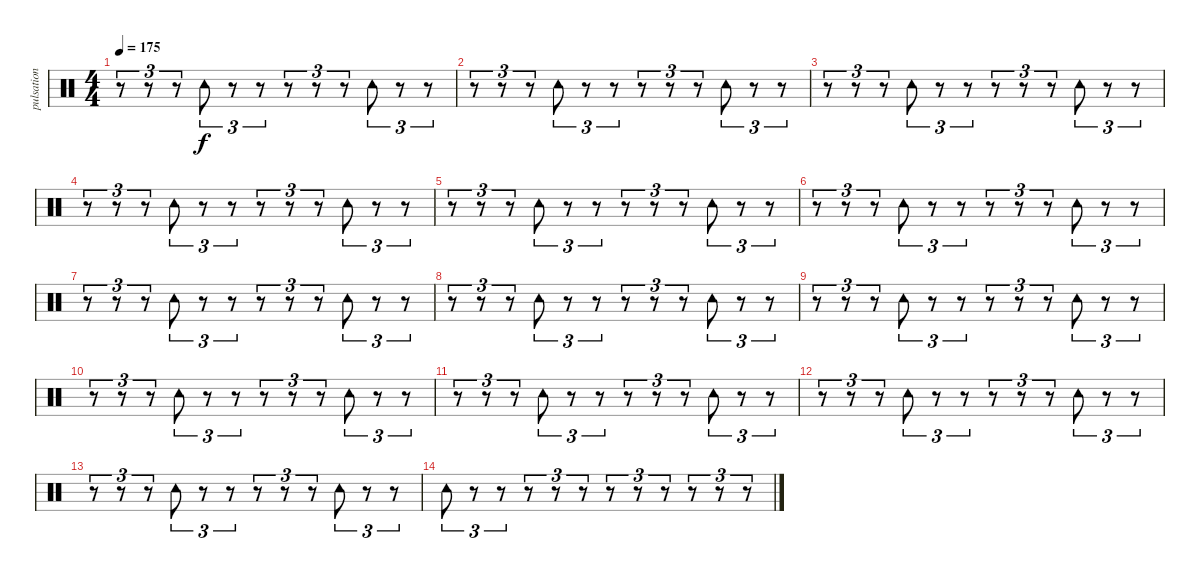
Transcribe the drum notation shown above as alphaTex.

\track ("pulsation" "pulsation") {instrument percussion}
\staff {score}
\articulation defaults
\ts (4 4)
\tempo 175
\clef neutral
\ks c
r.8{tu (3 2) dy f} r.8{tu (3 2)} r.8{tu (3 2)} "Tambourine (hit)".8{tu (3 2)} r.8{tu (3 2)} r.8{tu (3 2)} r.8{tu (3 2)} r.8{tu (3 2)} r.8{tu (3 2)} "Tambourine (hit)".8{tu (3 2)} r.8{tu (3 2)} r.8{tu (3 2)} |
r.8{tu (3 2)} r.8{tu (3 2)} r.8{tu (3 2)} "Tambourine (hit)".8{tu (3 2)} r.8{tu (3 2)} r.8{tu (3 2)} r.8{tu (3 2)} r.8{tu (3 2)} r.8{tu (3 2)} "Tambourine (hit)".8{tu (3 2)} r.8{tu (3 2)} r.8{tu (3 2)} |
r.8{tu (3 2)} r.8{tu (3 2)} r.8{tu (3 2)} "Tambourine (hit)".8{tu (3 2)} r.8{tu (3 2)} r.8{tu (3 2)} r.8{tu (3 2)} r.8{tu (3 2)} r.8{tu (3 2)} "Tambourine (hit)".8{tu (3 2)} r.8{tu (3 2)} r.8{tu (3 2)} |
r.8{tu (3 2)} r.8{tu (3 2)} r.8{tu (3 2)} "Tambourine (hit)".8{tu (3 2)} r.8{tu (3 2)} r.8{tu (3 2)} r.8{tu (3 2)} r.8{tu (3 2)} r.8{tu (3 2)} "Tambourine (hit)".8{tu (3 2)} r.8{tu (3 2)} r.8{tu (3 2)} |
r.8{tu (3 2)} r.8{tu (3 2)} r.8{tu (3 2)} "Tambourine (hit)".8{tu (3 2)} r.8{tu (3 2)} r.8{tu (3 2)} r.8{tu (3 2)} r.8{tu (3 2)} r.8{tu (3 2)} "Tambourine (hit)".8{tu (3 2)} r.8{tu (3 2)} r.8{tu (3 2)} |
r.8{tu (3 2)} r.8{tu (3 2)} r.8{tu (3 2)} "Tambourine (hit)".8{tu (3 2)} r.8{tu (3 2)} r.8{tu (3 2)} r.8{tu (3 2)} r.8{tu (3 2)} r.8{tu (3 2)} "Tambourine (hit)".8{tu (3 2)} r.8{tu (3 2)} r.8{tu (3 2)} |
r.8{tu (3 2)} r.8{tu (3 2)} r.8{tu (3 2)} "Tambourine (hit)".8{tu (3 2)} r.8{tu (3 2)} r.8{tu (3 2)} r.8{tu (3 2)} r.8{tu (3 2)} r.8{tu (3 2)} "Tambourine (hit)".8{tu (3 2)} r.8{tu (3 2)} r.8{tu (3 2)} |
r.8{tu (3 2)} r.8{tu (3 2)} r.8{tu (3 2)} "Tambourine (hit)".8{tu (3 2)} r.8{tu (3 2)} r.8{tu (3 2)} r.8{tu (3 2)} r.8{tu (3 2)} r.8{tu (3 2)} "Tambourine (hit)".8{tu (3 2)} r.8{tu (3 2)} r.8{tu (3 2)} |
r.8{tu (3 2)} r.8{tu (3 2)} r.8{tu (3 2)} "Tambourine (hit)".8{tu (3 2)} r.8{tu (3 2)} r.8{tu (3 2)} r.8{tu (3 2)} r.8{tu (3 2)} r.8{tu (3 2)} "Tambourine (hit)".8{tu (3 2)} r.8{tu (3 2)} r.8{tu (3 2)} |
r.8{tu (3 2)} r.8{tu (3 2)} r.8{tu (3 2)} "Tambourine (hit)".8{tu (3 2)} r.8{tu (3 2)} r.8{tu (3 2)} r.8{tu (3 2)} r.8{tu (3 2)} r.8{tu (3 2)} "Tambourine (hit)".8{tu (3 2)} r.8{tu (3 2)} r.8{tu (3 2)} |
r.8{tu (3 2)} r.8{tu (3 2)} r.8{tu (3 2)} "Tambourine (hit)".8{tu (3 2)} r.8{tu (3 2)} r.8{tu (3 2)} r.8{tu (3 2)} r.8{tu (3 2)} r.8{tu (3 2)} "Tambourine (hit)".8{tu (3 2)} r.8{tu (3 2)} r.8{tu (3 2)} |
r.8{tu (3 2)} r.8{tu (3 2)} r.8{tu (3 2)} "Tambourine (hit)".8{tu (3 2)} r.8{tu (3 2)} r.8{tu (3 2)} r.8{tu (3 2)} r.8{tu (3 2)} r.8{tu (3 2)} "Tambourine (hit)".8{tu (3 2)} r.8{tu (3 2)} r.8{tu (3 2)} |
r.8{tu (3 2)} r.8{tu (3 2)} r.8{tu (3 2)} "Tambourine (hit)".8{tu (3 2)} r.8{tu (3 2)} r.8{tu (3 2)} r.8{tu (3 2)} r.8{tu (3 2)} r.8{tu (3 2)} "Tambourine (hit)".8{tu (3 2)} r.8{tu (3 2)} r.8{tu (3 2)} |
"Tambourine (hit)".8{tu (3 2)} r.8{tu (3 2)} r.8{tu (3 2)} r.8{tu (3 2)} r.8{tu (3 2)} r.8{tu (3 2)} r.8{tu (3 2)} r.8{tu (3 2)} r.8{tu (3 2)} r.8{tu (3 2)} r.8{tu (3 2)} r.8{tu (3 2)}
